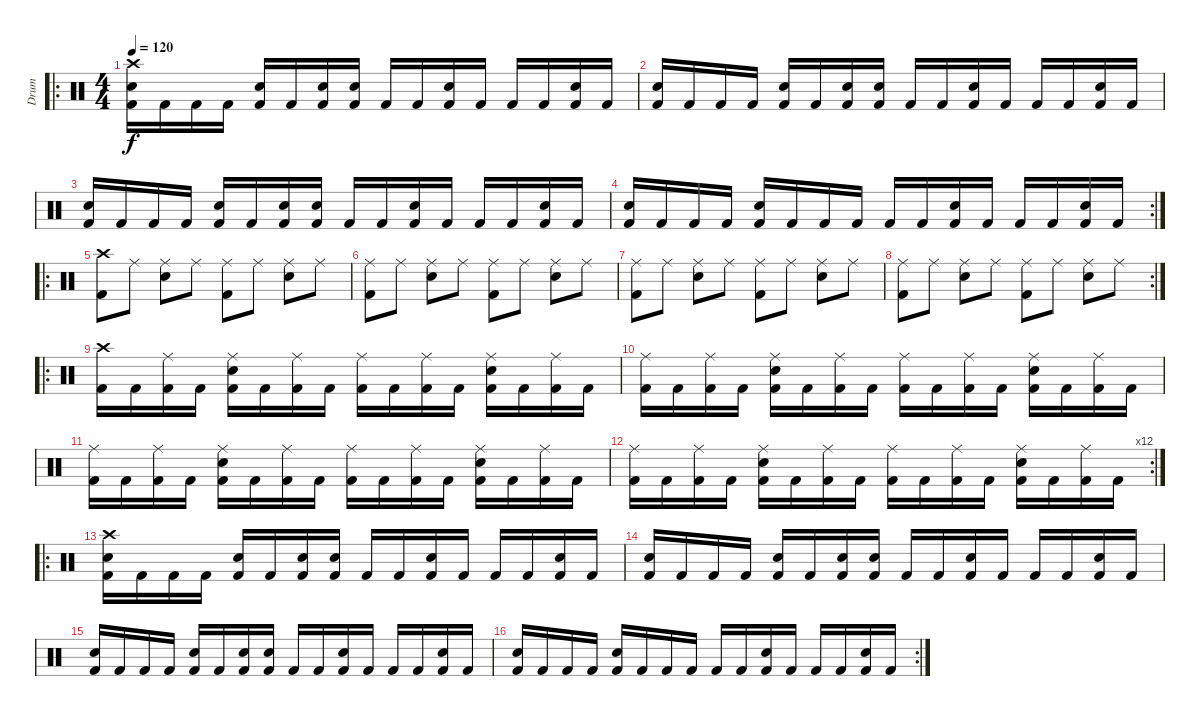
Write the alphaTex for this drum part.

\track ("Drum" "Drum") {instrument percussion}
\staff {score}
\articulation defaults
\ro
\ts (4 4)
\tempo 120
\clef neutral
\ks c
("Crash high (hit)" "Electric Snare (hit)" "Kick (hit) 2").16{dy f} "Kick (hit) 2".16 "Kick (hit) 2".16 "Kick (hit) 2".16 ("Electric Snare (hit)" "Kick (hit) 2").16 "Kick (hit) 2".16 ("Electric Snare (hit)" "Kick (hit) 2").16 ("Electric Snare (hit)" "Kick (hit) 2").16 "Kick (hit) 2".16 "Kick (hit) 2".16 ("Electric Snare (hit)" "Kick (hit) 2").16 "Kick (hit) 2".16 "Kick (hit) 2".16 "Kick (hit) 2".16 ("Electric Snare (hit)" "Kick (hit) 2").16 "Kick (hit) 2".16 |
("Electric Snare (hit)" "Kick (hit) 2").16 "Kick (hit) 2".16 "Kick (hit) 2".16 "Kick (hit) 2".16 ("Electric Snare (hit)" "Kick (hit) 2").16 "Kick (hit) 2".16 ("Electric Snare (hit)" "Kick (hit) 2").16 ("Electric Snare (hit)" "Kick (hit) 2").16 "Kick (hit) 2".16 "Kick (hit) 2".16 ("Electric Snare (hit)" "Kick (hit) 2").16 "Kick (hit) 2".16 "Kick (hit) 2".16 "Kick (hit) 2".16 ("Electric Snare (hit)" "Kick (hit) 2").16 "Kick (hit) 2".16 |
("Electric Snare (hit)" "Kick (hit) 2").16 "Kick (hit) 2".16 "Kick (hit) 2".16 "Kick (hit) 2".16 ("Electric Snare (hit)" "Kick (hit) 2").16 "Kick (hit) 2".16 ("Electric Snare (hit)" "Kick (hit) 2").16 ("Electric Snare (hit)" "Kick (hit) 2").16 "Kick (hit) 2".16 "Kick (hit) 2".16 ("Electric Snare (hit)" "Kick (hit) 2").16 "Kick (hit) 2".16 "Kick (hit) 2".16 "Kick (hit) 2".16 ("Electric Snare (hit)" "Kick (hit) 2").16 "Kick (hit) 2".16 |
\rc 2
("Electric Snare (hit)" "Kick (hit) 2").16 "Kick (hit) 2".16 "Kick (hit) 2".16 "Kick (hit) 2".16 ("Electric Snare (hit)" "Kick (hit) 2").16 "Kick (hit) 2".16 "Kick (hit) 2".16 "Kick (hit) 2".16 "Kick (hit) 2".16 "Kick (hit) 2".16 ("Electric Snare (hit)" "Kick (hit) 2").16 "Kick (hit) 2".16 "Kick (hit) 2".16 "Kick (hit) 2".16 ("Electric Snare (hit)" "Kick (hit) 2").16 "Kick (hit) 2".16 |
\ro
("Crash high (hit)" "Kick (hit) 2").8 "Ride (middle)".8 ("Ride (middle)" "Electric Snare (hit)").8 "Ride (middle)".8 ("Ride (middle)" "Kick (hit) 2").8 "Ride (middle)".8 ("Ride (middle)" "Electric Snare (hit)").8 "Ride (middle)".8 |
("Ride (middle)" "Kick (hit) 2").8 "Ride (middle)".8 ("Ride (middle)" "Electric Snare (hit)").8 "Ride (middle)".8 ("Ride (middle)" "Kick (hit) 2").8 "Ride (middle)".8 ("Ride (middle)" "Electric Snare (hit)").8 "Ride (middle)".8 |
("Ride (middle)" "Kick (hit) 2").8 "Ride (middle)".8 ("Ride (middle)" "Electric Snare (hit)").8 "Ride (middle)".8 ("Ride (middle)" "Kick (hit) 2").8 "Ride (middle)".8 ("Ride (middle)" "Electric Snare (hit)").8 "Ride (middle)".8 |
\rc 2
("Ride (middle)" "Kick (hit) 2").8 "Ride (middle)".8 ("Ride (middle)" "Electric Snare (hit)").8 "Ride (middle)".8 ("Ride (middle)" "Kick (hit) 2").8 "Ride (middle)".8 ("Ride (middle)" "Electric Snare (hit)").8 "Ride (middle)".8 |
\ro
("Crash high (hit)" "Kick (hit) 2").16 "Kick (hit) 2".16 ("Ride (middle)" "Kick (hit) 2").16 "Kick (hit) 2".16 ("Ride (middle)" "Electric Snare (hit)" "Kick (hit) 2").16 "Kick (hit) 2".16 ("Ride (middle)" "Kick (hit) 2").16 "Kick (hit) 2".16 ("Ride (middle)" "Kick (hit) 2").16 "Kick (hit) 2".16 ("Ride (middle)" "Kick (hit) 2").16 "Kick (hit) 2".16 ("Ride (middle)" "Electric Snare (hit)" "Kick (hit) 2").16 "Kick (hit) 2".16 ("Ride (middle)" "Kick (hit) 2").16 "Kick (hit) 2".16 |
("Ride (middle)" "Kick (hit) 2").16 "Kick (hit) 2".16 ("Ride (middle)" "Kick (hit) 2").16 "Kick (hit) 2".16 ("Ride (middle)" "Electric Snare (hit)" "Kick (hit) 2").16 "Kick (hit) 2".16 ("Ride (middle)" "Kick (hit) 2").16 "Kick (hit) 2".16 ("Ride (middle)" "Kick (hit) 2").16 "Kick (hit) 2".16 ("Ride (middle)" "Kick (hit) 2").16 "Kick (hit) 2".16 ("Ride (middle)" "Electric Snare (hit)" "Kick (hit) 2").16 "Kick (hit) 2".16 ("Ride (middle)" "Kick (hit) 2").16 "Kick (hit) 2".16 |
("Ride (middle)" "Kick (hit) 2").16 "Kick (hit) 2".16 ("Ride (middle)" "Kick (hit) 2").16 "Kick (hit) 2".16 ("Ride (middle)" "Electric Snare (hit)" "Kick (hit) 2").16 "Kick (hit) 2".16 ("Ride (middle)" "Kick (hit) 2").16 "Kick (hit) 2".16 ("Ride (middle)" "Kick (hit) 2").16 "Kick (hit) 2".16 ("Ride (middle)" "Kick (hit) 2").16 "Kick (hit) 2".16 ("Ride (middle)" "Electric Snare (hit)" "Kick (hit) 2").16 "Kick (hit) 2".16 ("Ride (middle)" "Kick (hit) 2").16 "Kick (hit) 2".16 |
\rc 12
("Ride (middle)" "Kick (hit) 2").16 "Kick (hit) 2".16 ("Ride (middle)" "Kick (hit) 2").16 "Kick (hit) 2".16 ("Ride (middle)" "Electric Snare (hit)" "Kick (hit) 2").16 "Kick (hit) 2".16 ("Ride (middle)" "Kick (hit) 2").16 "Kick (hit) 2".16 ("Ride (middle)" "Kick (hit) 2").16 "Kick (hit) 2".16 ("Ride (middle)" "Kick (hit) 2").16 "Kick (hit) 2".16 ("Ride (middle)" "Electric Snare (hit)" "Kick (hit) 2").16 "Kick (hit) 2".16 ("Ride (middle)" "Kick (hit) 2").16 "Kick (hit) 2".16 |
\ro
("Crash high (hit)" "Electric Snare (hit)" "Kick (hit) 2").16 "Kick (hit) 2".16 "Kick (hit) 2".16 "Kick (hit) 2".16 ("Electric Snare (hit)" "Kick (hit) 2").16 "Kick (hit) 2".16 ("Electric Snare (hit)" "Kick (hit) 2").16 ("Electric Snare (hit)" "Kick (hit) 2").16 "Kick (hit) 2".16 "Kick (hit) 2".16 ("Electric Snare (hit)" "Kick (hit) 2").16 "Kick (hit) 2".16 "Kick (hit) 2".16 "Kick (hit) 2".16 ("Electric Snare (hit)" "Kick (hit) 2").16 "Kick (hit) 2".16 |
("Electric Snare (hit)" "Kick (hit) 2").16 "Kick (hit) 2".16 "Kick (hit) 2".16 "Kick (hit) 2".16 ("Electric Snare (hit)" "Kick (hit) 2").16 "Kick (hit) 2".16 ("Electric Snare (hit)" "Kick (hit) 2").16 ("Electric Snare (hit)" "Kick (hit) 2").16 "Kick (hit) 2".16 "Kick (hit) 2".16 ("Electric Snare (hit)" "Kick (hit) 2").16 "Kick (hit) 2".16 "Kick (hit) 2".16 "Kick (hit) 2".16 ("Electric Snare (hit)" "Kick (hit) 2").16 "Kick (hit) 2".16 |
("Electric Snare (hit)" "Kick (hit) 2").16 "Kick (hit) 2".16 "Kick (hit) 2".16 "Kick (hit) 2".16 ("Electric Snare (hit)" "Kick (hit) 2").16 "Kick (hit) 2".16 ("Electric Snare (hit)" "Kick (hit) 2").16 ("Electric Snare (hit)" "Kick (hit) 2").16 "Kick (hit) 2".16 "Kick (hit) 2".16 ("Electric Snare (hit)" "Kick (hit) 2").16 "Kick (hit) 2".16 "Kick (hit) 2".16 "Kick (hit) 2".16 ("Electric Snare (hit)" "Kick (hit) 2").16 "Kick (hit) 2".16 |
\rc 2
("Electric Snare (hit)" "Kick (hit) 2").16 "Kick (hit) 2".16 "Kick (hit) 2".16 "Kick (hit) 2".16 ("Electric Snare (hit)" "Kick (hit) 2").16 "Kick (hit) 2".16 "Kick (hit) 2".16 "Kick (hit) 2".16 "Kick (hit) 2".16 "Kick (hit) 2".16 ("Electric Snare (hit)" "Kick (hit) 2").16 "Kick (hit) 2".16 "Kick (hit) 2".16 "Kick (hit) 2".16 ("Electric Snare (hit)" "Kick (hit) 2").16 "Kick (hit) 2".16
